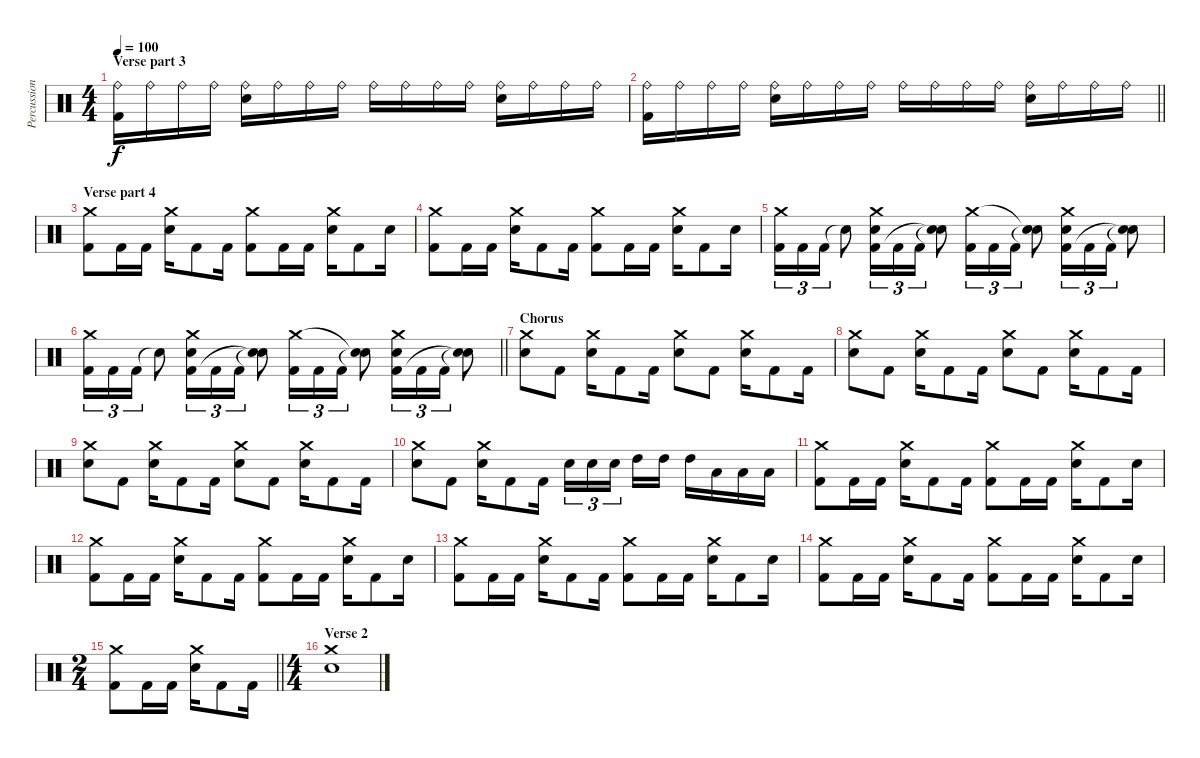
\track ("Percussion" "Percussion") {instrument percussion}
\staff {score}
\articulation defaults
\ts (4 4)
\section ("" "Verse part 3")
\tempo 100
\clef neutral
\ks c
("Ride (bell)" "Kick (hit) 2").16{dy f} "Ride (bell)".16 "Ride (bell)".16 "Ride (bell)".16 ("Ride (bell)" "Snare (hit) 2").16 "Ride (bell)".16 "Ride (bell)".16 "Ride (bell)".16 "Ride (bell)".16 "Ride (bell)".16 "Ride (bell)".16 "Ride (bell)".16 ("Ride (bell)" "Snare (hit) 2").16 "Ride (bell)".16 "Ride (bell)".16 "Ride (bell)".16 |
\barLineRight lightlight
("Ride (bell)" "Kick (hit) 2").16 "Ride (bell)".16 "Ride (bell)".16 "Ride (bell)".16 ("Ride (bell)" "Snare (hit) 2").16 "Ride (bell)".16 "Ride (bell)".16 "Ride (bell)".16 "Ride (bell)".16 "Ride (bell)".16 "Ride (bell)".16 "Ride (bell)".16 ("Ride (bell)" "Snare (hit) 2").16 "Ride (bell)".16 "Ride (bell)".16 "Ride (bell)".16 |
\section ("" "Verse part 4")
("Kick (hit) 2" "Crash medium (hit)").8 "Kick (hit) 2".16 "Kick (hit) 2".16 ("Snare (hit) 2" "Crash medium (hit)").16 "Kick (hit) 2".8 "Kick (hit) 2".16 ("Kick (hit) 2" "Crash medium (hit)").8 "Kick (hit) 2".16 "Kick (hit) 2".16 ("Snare (hit) 2" "Crash medium (hit)").16 "Kick (hit) 2".8 "Snare (hit) 2".16 |
("Kick (hit) 2" "Crash medium (hit)").8 "Kick (hit) 2".16 "Kick (hit) 2".16 ("Snare (hit) 2" "Crash medium (hit)").16 "Kick (hit) 2".8 "Kick (hit) 2".16 ("Kick (hit) 2" "Crash medium (hit)").8 "Kick (hit) 2".16 "Kick (hit) 2".16 ("Snare (hit) 2" "Crash medium (hit)").16 "Kick (hit) 2".8 "Snare (hit) 2".16 |
("Kick (hit) 2" "Crash medium (hit)").16{tu (3 2)} "Kick (hit) 2".16{tu (3 2)} "Kick (hit) 2".16{tu (3 2)} "Snare (hit)"{t}.8 ("Snare (hit) 2" "Kick (hit) 2" "Crash medium (hit)").16{tu (3 2)} "Kick (hit) 2".16{tu (3 2)} "Kick (hit) 2".16{tu (3 2)} ("Snare (hit)"{t} "Snare (hit)"{t}).8 ("Kick (hit) 2" "Crash medium (hit)").16{tu (3 2)} "Kick (hit) 2".16{tu (3 2)} "Kick (hit) 2".16{tu (3 2)} ("Snare (hit)"{t} "Snare (hit)"{t}).8 ("Snare (hit) 2" "Kick (hit) 2" "Crash medium (hit)").16{tu (3 2)} "Kick (hit) 2".16{tu (3 2)} "Kick (hit) 2".16{tu (3 2)} ("Snare (hit)"{t} "Snare (hit)"{t}).8 |
\barLineRight lightlight
("Kick (hit) 2" "Crash medium (hit)").16{tu (3 2)} "Kick (hit) 2".16{tu (3 2)} "Kick (hit) 2".16{tu (3 2)} "Snare (hit)"{t}.8 ("Snare (hit) 2" "Kick (hit) 2" "Crash medium (hit)").16{tu (3 2)} "Kick (hit) 2".16{tu (3 2)} "Kick (hit) 2".16{tu (3 2)} ("Snare (hit)"{t} "Snare (hit)"{t}).8 ("Kick (hit) 2" "Crash medium (hit)").16{tu (3 2)} "Kick (hit) 2".16{tu (3 2)} "Kick (hit) 2".16{tu (3 2)} ("Snare (hit)"{t} "Snare (hit)"{t}).8 ("Snare (hit) 2" "Kick (hit) 2" "Crash medium (hit)").16{tu (3 2)} "Kick (hit) 2".16{tu (3 2)} "Kick (hit) 2".16{tu (3 2)} ("Snare (hit)"{t} "Snare (hit)"{t}).8 |
\section ("" "Chorus")
("Snare (hit) 2" "Crash medium (hit)").8 "Kick (hit) 2".8 ("Snare (hit) 2" "Crash medium (hit)").16 "Kick (hit) 2".8 "Kick (hit) 2".16 ("Snare (hit) 2" "Crash medium (hit)").8 "Kick (hit) 2".8 ("Snare (hit) 2" "Crash medium (hit)").16 "Kick (hit) 2".8 "Kick (hit) 2".16 |
("Snare (hit) 2" "Crash medium (hit)").8 "Kick (hit) 2".8 ("Snare (hit) 2" "Crash medium (hit)").16 "Kick (hit) 2".8 "Kick (hit) 2".16 ("Snare (hit) 2" "Crash medium (hit)").8 "Kick (hit) 2".8 ("Snare (hit) 2" "Crash medium (hit)").16 "Kick (hit) 2".8 "Kick (hit) 2".16 |
("Snare (hit) 2" "Crash medium (hit)").8 "Kick (hit) 2".8 ("Snare (hit) 2" "Crash medium (hit)").16 "Kick (hit) 2".8 "Kick (hit) 2".16 ("Snare (hit) 2" "Crash medium (hit)").8 "Kick (hit) 2".8 ("Snare (hit) 2" "Crash medium (hit)").16 "Kick (hit) 2".8 "Kick (hit) 2".16 |
("Snare (hit) 2" "Crash medium (hit)").8 "Kick (hit) 2".8 ("Snare (hit) 2" "Crash medium (hit)").16 "Kick (hit) 2".8 "Kick (hit) 2".16 "Snare (hit) 2".16{tu (3 2)} "Snare (hit) 2".16{tu (3 2)} "Snare (hit) 2".16{tu (3 2) beam splitsecondary} "High Tom (hit)".16 "High Tom (hit)".16 "High Tom (hit)".16 "Low Tom (hit)".16 "Low Tom (hit)".16 "Low Floor Tom (hit)".16 |
("Kick (hit) 2" "Crash medium (hit)").8 "Kick (hit) 2".16 "Kick (hit) 2".16 ("Snare (hit) 2" "Crash medium (hit)").16 "Kick (hit) 2".8 "Kick (hit) 2".16 ("Kick (hit) 2" "Crash medium (hit)").8 "Kick (hit) 2".16 "Kick (hit) 2".16 ("Snare (hit) 2" "Crash medium (hit)").16 "Kick (hit) 2".8 "Snare (hit) 2".16 |
("Kick (hit) 2" "Crash medium (hit)").8 "Kick (hit) 2".16 "Kick (hit) 2".16 ("Snare (hit) 2" "Crash medium (hit)").16 "Kick (hit) 2".8 "Kick (hit) 2".16 ("Kick (hit) 2" "Crash medium (hit)").8 "Kick (hit) 2".16 "Kick (hit) 2".16 ("Snare (hit) 2" "Crash medium (hit)").16 "Kick (hit) 2".8 "Snare (hit) 2".16 |
("Kick (hit) 2" "Crash medium (hit)").8 "Kick (hit) 2".16 "Kick (hit) 2".16 ("Snare (hit) 2" "Crash medium (hit)").16 "Kick (hit) 2".8 "Kick (hit) 2".16 ("Kick (hit) 2" "Crash medium (hit)").8 "Kick (hit) 2".16 "Kick (hit) 2".16 ("Snare (hit) 2" "Crash medium (hit)").16 "Kick (hit) 2".8 "Snare (hit) 2".16 |
("Kick (hit) 2" "Crash medium (hit)").8 "Kick (hit) 2".16 "Kick (hit) 2".16 ("Snare (hit) 2" "Crash medium (hit)").16 "Kick (hit) 2".8 "Kick (hit) 2".16 ("Kick (hit) 2" "Crash medium (hit)").8 "Kick (hit) 2".16 "Kick (hit) 2".16 ("Snare (hit) 2" "Crash medium (hit)").16 "Kick (hit) 2".8 "Snare (hit) 2".16 |
\ts (2 4)
\barLineRight lightlight
("Kick (hit) 2" "Crash medium (hit)").8 "Kick (hit) 2".16 "Kick (hit) 2".16 ("Snare (hit) 2" "Crash medium (hit)").16 "Kick (hit) 2".8 "Kick (hit) 2".16 |
\ts (4 4)
\section ("" "Verse 2")
("Snare (hit) 2" "Crash medium (hit)").1
